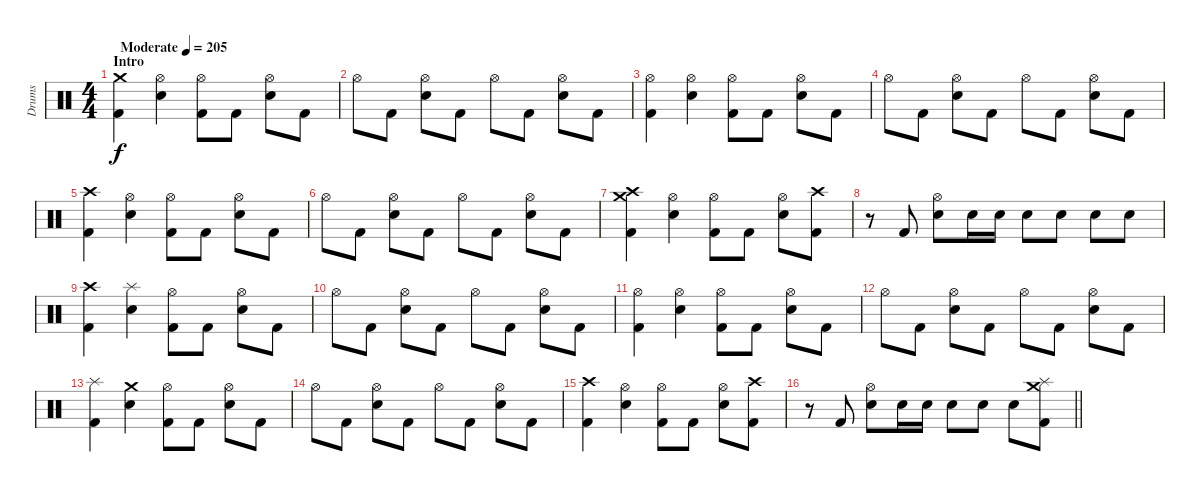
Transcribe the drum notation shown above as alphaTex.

\track ("Drums" "Drums") {instrument percussion}
\staff {score}
\articulation defaults
\ts (4 4)
\section ("" "Intro")
\tempo (205 "Moderate")
\clef neutral
\ks c
("Crash medium (hit)" "Kick (hit) 2").4{dy f} ("Hi-Hat (open)" "Electric Snare (hit)").4 ("Hi-Hat (open)" "Kick (hit) 2").8 "Kick (hit) 2".8 ("Hi-Hat (open)" "Electric Snare (hit)").8 "Kick (hit) 2".8 |
"Hi-Hat (open)".8 "Kick (hit) 2".8 ("Hi-Hat (open)" "Electric Snare (hit)").8 "Kick (hit) 2".8 "Hi-Hat (open)".8 "Kick (hit) 2".8 ("Hi-Hat (open)" "Electric Snare (hit)").8 "Kick (hit) 2".8 |
("Hi-Hat (open)" "Kick (hit) 2").4 ("Hi-Hat (open)" "Electric Snare (hit)").4 ("Hi-Hat (open)" "Kick (hit) 2").8 "Kick (hit) 2".8 ("Hi-Hat (open)" "Electric Snare (hit)").8 "Kick (hit) 2".8 |
"Hi-Hat (open)".8 "Kick (hit) 2".8 ("Hi-Hat (open)" "Electric Snare (hit)").8 "Kick (hit) 2".8 "Hi-Hat (open)".8 "Kick (hit) 2".8 ("Hi-Hat (open)" "Electric Snare (hit)").8 "Kick (hit) 2".8 |
("Crash high (hit)" "Kick (hit) 2").4 ("Hi-Hat (open)" "Electric Snare (hit)").4 ("Hi-Hat (open)" "Kick (hit) 2").8 "Kick (hit) 2".8 ("Hi-Hat (open)" "Electric Snare (hit)").8 "Kick (hit) 2".8 |
"Hi-Hat (open)".8 "Kick (hit) 2".8 ("Hi-Hat (open)" "Electric Snare (hit)").8 "Kick (hit) 2".8 "Hi-Hat (open)".8 "Kick (hit) 2".8 ("Hi-Hat (open)" "Electric Snare (hit)").8 "Kick (hit) 2".8 |
("Crash medium (hit)" "Crash high (hit)" "Kick (hit) 2").4 ("Hi-Hat (open)" "Electric Snare (hit)").4 ("Hi-Hat (open)" "Kick (hit) 2").8 "Kick (hit) 2".8 ("Hi-Hat (open)" "Electric Snare (hit)").8 ("Crash high (hit)" "Kick (hit) 2").8 |
r.8 "Kick (hit) 2".8 ("Hi-Hat (open)" "Electric Snare (hit)").8 "Electric Snare (hit)".16 "Electric Snare (hit)".16 "Electric Snare (hit)".8 "Electric Snare (hit)".8 "Electric Snare (hit)".8 "Electric Snare (hit)".8 |
("Crash high (hit)" "Kick (hit) 2").4 ("Splash (hit)" "Electric Snare (hit)").4 ("Hi-Hat (open)" "Kick (hit) 2").8 "Kick (hit) 2".8 ("Hi-Hat (open)" "Electric Snare (hit)").8 "Kick (hit) 2".8 |
"Hi-Hat (open)".8 "Kick (hit) 2".8 ("Hi-Hat (open)" "Electric Snare (hit)").8 "Kick (hit) 2".8 "Hi-Hat (open)".8 "Kick (hit) 2".8 ("Hi-Hat (open)" "Electric Snare (hit)").8 "Kick (hit) 2".8 |
("Hi-Hat (open)" "Kick (hit) 2").4 ("Hi-Hat (open)" "Electric Snare (hit)").4 ("Hi-Hat (open)" "Kick (hit) 2").8 "Kick (hit) 2".8 ("Hi-Hat (open)" "Electric Snare (hit)").8 "Kick (hit) 2".8 |
"Hi-Hat (open)".8 "Kick (hit) 2".8 ("Hi-Hat (open)" "Electric Snare (hit)").8 "Kick (hit) 2".8 "Hi-Hat (open)".8 "Kick (hit) 2".8 ("Hi-Hat (open)" "Electric Snare (hit)").8 "Kick (hit) 2".8 |
("Splash (hit)" "Kick (hit) 2").4 ("Crash medium (hit)" "Electric Snare (hit)").4 ("Hi-Hat (open)" "Kick (hit) 2").8 "Kick (hit) 2".8 ("Hi-Hat (open)" "Electric Snare (hit)").8 "Kick (hit) 2".8 |
"Hi-Hat (open)".8 "Kick (hit) 2".8 ("Hi-Hat (open)" "Electric Snare (hit)").8 "Kick (hit) 2".8 "Hi-Hat (open)".8 "Kick (hit) 2".8 ("Hi-Hat (open)" "Electric Snare (hit)").8 "Kick (hit) 2".8 |
("Crash high (hit)" "Kick (hit) 2").4 ("Hi-Hat (open)" "Electric Snare (hit)").4 ("Hi-Hat (open)" "Kick (hit) 2").8 "Kick (hit) 2".8 ("Hi-Hat (open)" "Electric Snare (hit)").8 ("Crash high (hit)" "Kick (hit) 2").8 |
\barLineRight lightlight
r.8 "Kick (hit) 2".8 ("Hi-Hat (open)" "Electric Snare (hit)").8 "Electric Snare (hit)".16 "Electric Snare (hit)".16 "Electric Snare (hit)".8 "Electric Snare (hit)".8 "Electric Snare (hit)".8 ("Splash (hit)" "Crash medium (hit)" "Kick (hit) 2").8
